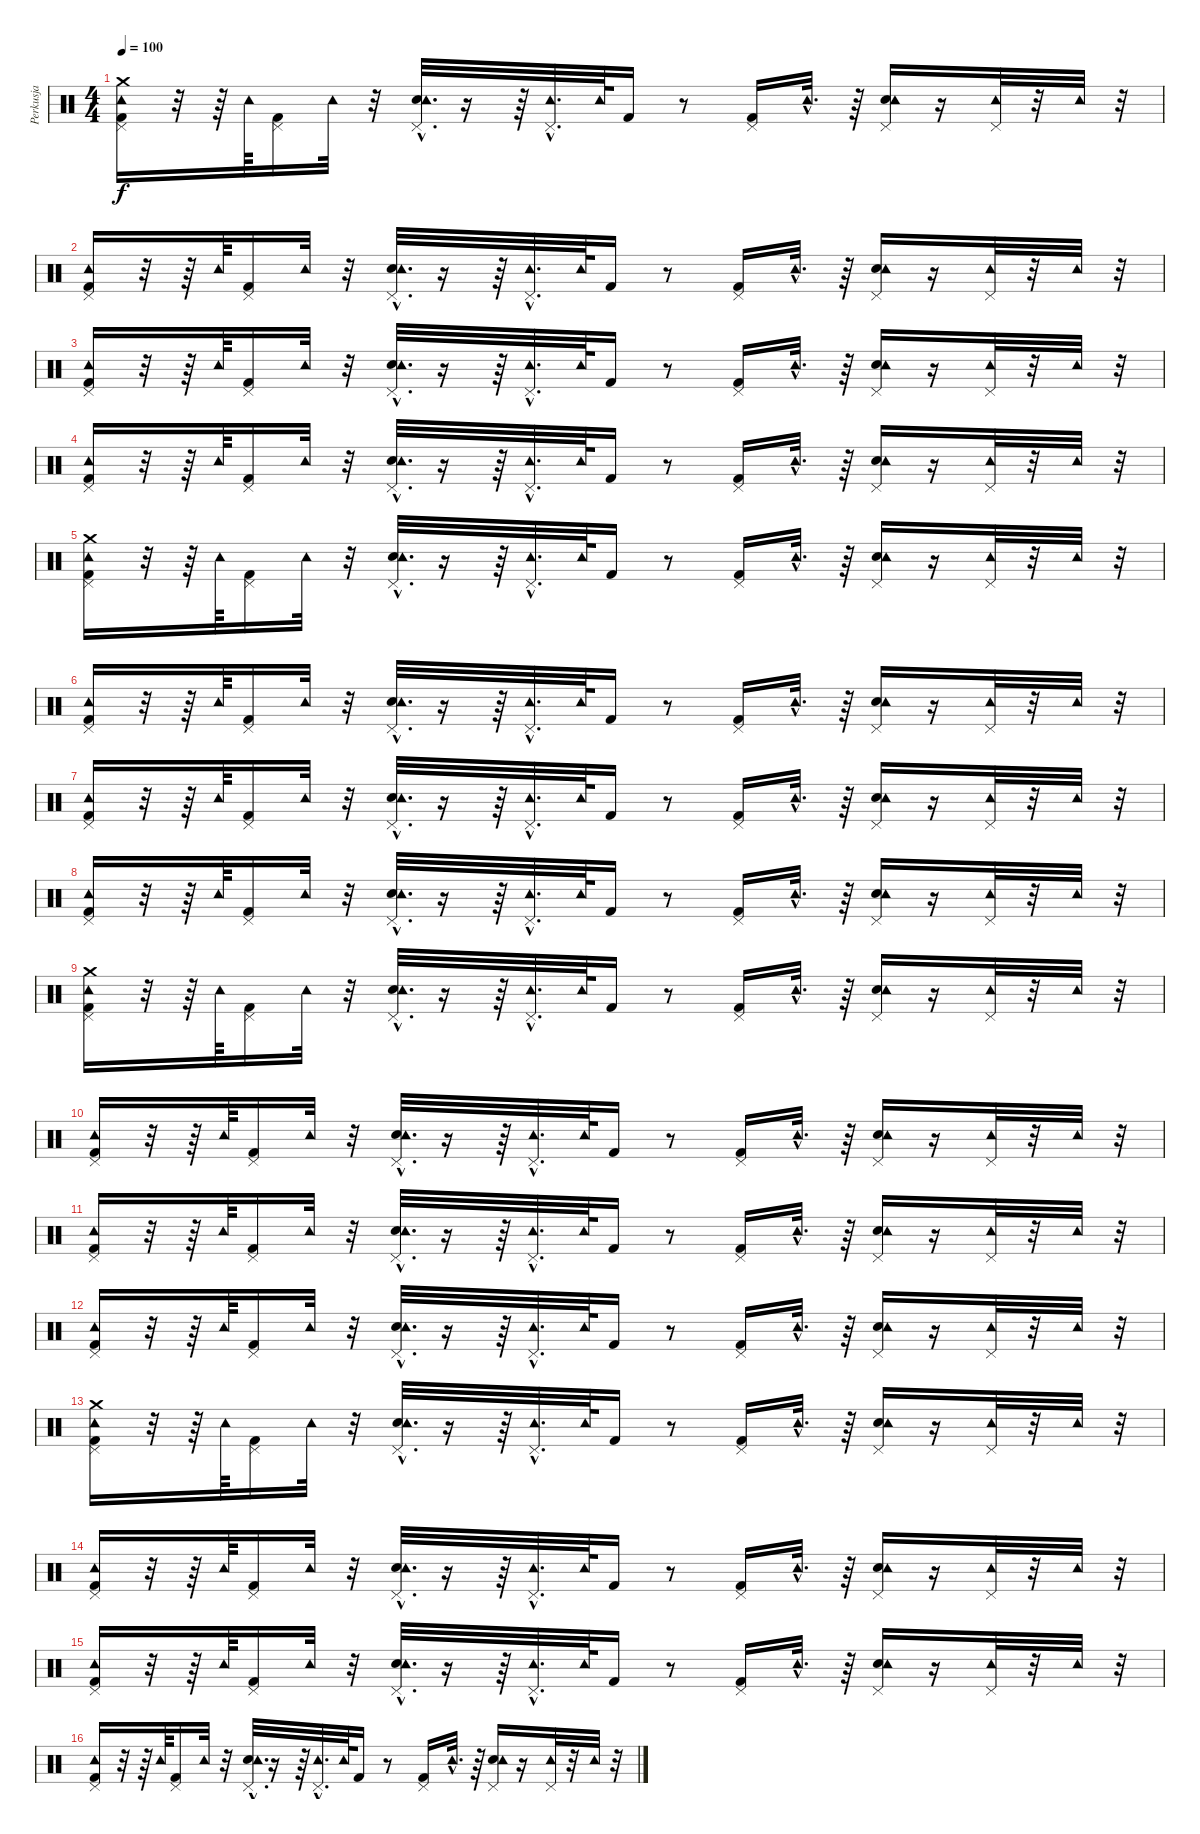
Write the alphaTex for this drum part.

\track ("Perkusja" "Perkusja") {instrument percussion}
\staff {score}
\articulation defaults
\ts (4 4)
\tempo 100
\clef neutral
\ks c
("Tambourine (hit)" "Pedal Hi-Hat (hit)" "Kick (hit) 2" "Crash medium (hit)").16{dy f} r.32 r.64 "Tambourine (hit)".64 ("Kick (hit) 2" "Pedal Hi-Hat (hit)").16 "Tambourine (hit)".32 r.32 ("Electric Snare (hit)"{hac} "Pedal Hi-Hat (hit)"{hac} "Tambourine (hit)"{hac}).32{d} r.16 r.64 ("Pedal Hi-Hat (hit)"{hac} "Tambourine (hit)"{hac}).32{d} "Tambourine (hit)".64 "Kick (hit) 2".16 r.8 ("Kick (hit) 2" "Pedal Hi-Hat (hit)").16 "Tambourine (hit)"{hac}.32{d} r.64 ("Electric Snare (hit)" "Pedal Hi-Hat (hit)" "Tambourine (hit)").16 r.16 ("Pedal Hi-Hat (hit)" "Tambourine (hit)").32 r.32 "Tambourine (hit)".32 r.32 |
("Tambourine (hit)" "Pedal Hi-Hat (hit)" "Kick (hit) 2").16 r.32 r.64 "Tambourine (hit)".64 ("Kick (hit) 2" "Pedal Hi-Hat (hit)").16 "Tambourine (hit)".32 r.32 ("Electric Snare (hit)"{hac} "Pedal Hi-Hat (hit)"{hac} "Tambourine (hit)"{hac}).32{d} r.16 r.64 ("Pedal Hi-Hat (hit)"{hac} "Tambourine (hit)"{hac}).32{d} "Tambourine (hit)".64 "Kick (hit) 2".16 r.8 ("Kick (hit) 2" "Pedal Hi-Hat (hit)").16 "Tambourine (hit)"{hac}.32{d} r.64 ("Electric Snare (hit)" "Pedal Hi-Hat (hit)" "Tambourine (hit)").16 r.16 ("Pedal Hi-Hat (hit)" "Tambourine (hit)").32 r.32 "Tambourine (hit)".32 r.32 |
("Tambourine (hit)" "Pedal Hi-Hat (hit)" "Kick (hit) 2").16 r.32 r.64 "Tambourine (hit)".64 ("Kick (hit) 2" "Pedal Hi-Hat (hit)").16 "Tambourine (hit)".32 r.32 ("Electric Snare (hit)"{hac} "Pedal Hi-Hat (hit)"{hac} "Tambourine (hit)"{hac}).32{d} r.16 r.64 ("Pedal Hi-Hat (hit)"{hac} "Tambourine (hit)"{hac}).32{d} "Tambourine (hit)".64 "Kick (hit) 2".16 r.8 ("Kick (hit) 2" "Pedal Hi-Hat (hit)").16 "Tambourine (hit)"{hac}.32{d} r.64 ("Electric Snare (hit)" "Pedal Hi-Hat (hit)" "Tambourine (hit)").16 r.16 ("Pedal Hi-Hat (hit)" "Tambourine (hit)").32 r.32 "Tambourine (hit)".32 r.32 |
("Tambourine (hit)" "Pedal Hi-Hat (hit)" "Kick (hit) 2").16 r.32 r.64 "Tambourine (hit)".64 ("Kick (hit) 2" "Pedal Hi-Hat (hit)").16 "Tambourine (hit)".32 r.32 ("Electric Snare (hit)"{hac} "Pedal Hi-Hat (hit)"{hac} "Tambourine (hit)"{hac}).32{d} r.16 r.64 ("Pedal Hi-Hat (hit)"{hac} "Tambourine (hit)"{hac}).32{d} "Tambourine (hit)".64 "Kick (hit) 2".16 r.8 ("Kick (hit) 2" "Pedal Hi-Hat (hit)").16 "Tambourine (hit)"{hac}.32{d} r.64 ("Electric Snare (hit)" "Pedal Hi-Hat (hit)" "Tambourine (hit)").16 r.16 ("Pedal Hi-Hat (hit)" "Tambourine (hit)").32 r.32 "Tambourine (hit)".32 r.32 |
("Tambourine (hit)" "Pedal Hi-Hat (hit)" "Kick (hit) 2" "Crash medium (hit)").16 r.32 r.64 "Tambourine (hit)".64 ("Kick (hit) 2" "Pedal Hi-Hat (hit)").16 "Tambourine (hit)".32 r.32 ("Electric Snare (hit)"{hac} "Pedal Hi-Hat (hit)"{hac} "Tambourine (hit)"{hac}).32{d} r.16 r.64 ("Pedal Hi-Hat (hit)"{hac} "Tambourine (hit)"{hac}).32{d} "Tambourine (hit)".64 "Kick (hit) 2".16 r.8 ("Kick (hit) 2" "Pedal Hi-Hat (hit)").16 "Tambourine (hit)"{hac}.32{d} r.64 ("Electric Snare (hit)" "Pedal Hi-Hat (hit)" "Tambourine (hit)").16 r.16 ("Pedal Hi-Hat (hit)" "Tambourine (hit)").32 r.32 "Tambourine (hit)".32 r.32 |
("Tambourine (hit)" "Pedal Hi-Hat (hit)" "Kick (hit) 2").16 r.32 r.64 "Tambourine (hit)".64 ("Kick (hit) 2" "Pedal Hi-Hat (hit)").16 "Tambourine (hit)".32 r.32 ("Electric Snare (hit)"{hac} "Pedal Hi-Hat (hit)"{hac} "Tambourine (hit)"{hac}).32{d} r.16 r.64 ("Pedal Hi-Hat (hit)"{hac} "Tambourine (hit)"{hac}).32{d} "Tambourine (hit)".64 "Kick (hit) 2".16 r.8 ("Kick (hit) 2" "Pedal Hi-Hat (hit)").16 "Tambourine (hit)"{hac}.32{d} r.64 ("Electric Snare (hit)" "Pedal Hi-Hat (hit)" "Tambourine (hit)").16 r.16 ("Pedal Hi-Hat (hit)" "Tambourine (hit)").32 r.32 "Tambourine (hit)".32 r.32 |
("Tambourine (hit)" "Pedal Hi-Hat (hit)" "Kick (hit) 2").16 r.32 r.64 "Tambourine (hit)".64 ("Kick (hit) 2" "Pedal Hi-Hat (hit)").16 "Tambourine (hit)".32 r.32 ("Electric Snare (hit)"{hac} "Pedal Hi-Hat (hit)"{hac} "Tambourine (hit)"{hac}).32{d} r.16 r.64 ("Pedal Hi-Hat (hit)"{hac} "Tambourine (hit)"{hac}).32{d} "Tambourine (hit)".64 "Kick (hit) 2".16 r.8 ("Kick (hit) 2" "Pedal Hi-Hat (hit)").16 "Tambourine (hit)"{hac}.32{d} r.64 ("Electric Snare (hit)" "Pedal Hi-Hat (hit)" "Tambourine (hit)").16 r.16 ("Pedal Hi-Hat (hit)" "Tambourine (hit)").32 r.32 "Tambourine (hit)".32 r.32 |
("Tambourine (hit)" "Pedal Hi-Hat (hit)" "Kick (hit) 2").16 r.32 r.64 "Tambourine (hit)".64 ("Kick (hit) 2" "Pedal Hi-Hat (hit)").16 "Tambourine (hit)".32 r.32 ("Electric Snare (hit)"{hac} "Pedal Hi-Hat (hit)"{hac} "Tambourine (hit)"{hac}).32{d} r.16 r.64 ("Pedal Hi-Hat (hit)"{hac} "Tambourine (hit)"{hac}).32{d} "Tambourine (hit)".64 "Kick (hit) 2".16 r.8 ("Kick (hit) 2" "Pedal Hi-Hat (hit)").16 "Tambourine (hit)"{hac}.32{d} r.64 ("Electric Snare (hit)" "Pedal Hi-Hat (hit)" "Tambourine (hit)").16 r.16 ("Pedal Hi-Hat (hit)" "Tambourine (hit)").32 r.32 "Tambourine (hit)".32 r.32 |
("Tambourine (hit)" "Pedal Hi-Hat (hit)" "Kick (hit) 2" "Crash medium (hit)").16 r.32 r.64 "Tambourine (hit)".64 ("Kick (hit) 2" "Pedal Hi-Hat (hit)").16 "Tambourine (hit)".32 r.32 ("Electric Snare (hit)"{hac} "Pedal Hi-Hat (hit)"{hac} "Tambourine (hit)"{hac}).32{d} r.16 r.64 ("Pedal Hi-Hat (hit)"{hac} "Tambourine (hit)"{hac}).32{d} "Tambourine (hit)".64 "Kick (hit) 2".16 r.8 ("Kick (hit) 2" "Pedal Hi-Hat (hit)").16 "Tambourine (hit)"{hac}.32{d} r.64 ("Electric Snare (hit)" "Pedal Hi-Hat (hit)" "Tambourine (hit)").16 r.16 ("Pedal Hi-Hat (hit)" "Tambourine (hit)").32 r.32 "Tambourine (hit)".32 r.32 |
("Tambourine (hit)" "Pedal Hi-Hat (hit)" "Kick (hit) 2").16 r.32 r.64 "Tambourine (hit)".64 ("Kick (hit) 2" "Pedal Hi-Hat (hit)").16 "Tambourine (hit)".32 r.32 ("Electric Snare (hit)"{hac} "Pedal Hi-Hat (hit)"{hac} "Tambourine (hit)"{hac}).32{d} r.16 r.64 ("Pedal Hi-Hat (hit)"{hac} "Tambourine (hit)"{hac}).32{d} "Tambourine (hit)".64 "Kick (hit) 2".16 r.8 ("Kick (hit) 2" "Pedal Hi-Hat (hit)").16 "Tambourine (hit)"{hac}.32{d} r.64 ("Electric Snare (hit)" "Pedal Hi-Hat (hit)" "Tambourine (hit)").16 r.16 ("Pedal Hi-Hat (hit)" "Tambourine (hit)").32 r.32 "Tambourine (hit)".32 r.32 |
("Tambourine (hit)" "Pedal Hi-Hat (hit)" "Kick (hit) 2").16 r.32 r.64 "Tambourine (hit)".64 ("Kick (hit) 2" "Pedal Hi-Hat (hit)").16 "Tambourine (hit)".32 r.32 ("Electric Snare (hit)"{hac} "Pedal Hi-Hat (hit)"{hac} "Tambourine (hit)"{hac}).32{d} r.16 r.64 ("Pedal Hi-Hat (hit)"{hac} "Tambourine (hit)"{hac}).32{d} "Tambourine (hit)".64 "Kick (hit) 2".16 r.8 ("Kick (hit) 2" "Pedal Hi-Hat (hit)").16 "Tambourine (hit)"{hac}.32{d} r.64 ("Electric Snare (hit)" "Pedal Hi-Hat (hit)" "Tambourine (hit)").16 r.16 ("Pedal Hi-Hat (hit)" "Tambourine (hit)").32 r.32 "Tambourine (hit)".32 r.32 |
("Tambourine (hit)" "Pedal Hi-Hat (hit)" "Kick (hit) 2").16 r.32 r.64 "Tambourine (hit)".64 ("Kick (hit) 2" "Pedal Hi-Hat (hit)").16 "Tambourine (hit)".32 r.32 ("Electric Snare (hit)"{hac} "Pedal Hi-Hat (hit)"{hac} "Tambourine (hit)"{hac}).32{d} r.16 r.64 ("Pedal Hi-Hat (hit)"{hac} "Tambourine (hit)"{hac}).32{d} "Tambourine (hit)".64 "Kick (hit) 2".16 r.8 ("Kick (hit) 2" "Pedal Hi-Hat (hit)").16 "Tambourine (hit)"{hac}.32{d} r.64 ("Electric Snare (hit)" "Pedal Hi-Hat (hit)" "Tambourine (hit)").16 r.16 ("Pedal Hi-Hat (hit)" "Tambourine (hit)").32 r.32 "Tambourine (hit)".32 r.32 |
("Tambourine (hit)" "Pedal Hi-Hat (hit)" "Kick (hit) 2" "Crash medium (hit)").16 r.32 r.64 "Tambourine (hit)".64 ("Kick (hit) 2" "Pedal Hi-Hat (hit)").16 "Tambourine (hit)".32 r.32 ("Electric Snare (hit)"{hac} "Pedal Hi-Hat (hit)"{hac} "Tambourine (hit)"{hac}).32{d} r.16 r.64 ("Pedal Hi-Hat (hit)"{hac} "Tambourine (hit)"{hac}).32{d} "Tambourine (hit)".64 "Kick (hit) 2".16 r.8 ("Kick (hit) 2" "Pedal Hi-Hat (hit)").16 "Tambourine (hit)"{hac}.32{d} r.64 ("Electric Snare (hit)" "Pedal Hi-Hat (hit)" "Tambourine (hit)").16 r.16 ("Pedal Hi-Hat (hit)" "Tambourine (hit)").32 r.32 "Tambourine (hit)".32 r.32 |
("Tambourine (hit)" "Pedal Hi-Hat (hit)" "Kick (hit) 2").16 r.32 r.64 "Tambourine (hit)".64 ("Kick (hit) 2" "Pedal Hi-Hat (hit)").16 "Tambourine (hit)".32 r.32 ("Electric Snare (hit)"{hac} "Pedal Hi-Hat (hit)"{hac} "Tambourine (hit)"{hac}).32{d} r.16 r.64 ("Pedal Hi-Hat (hit)"{hac} "Tambourine (hit)"{hac}).32{d} "Tambourine (hit)".64 "Kick (hit) 2".16 r.8 ("Kick (hit) 2" "Pedal Hi-Hat (hit)").16 "Tambourine (hit)"{hac}.32{d} r.64 ("Electric Snare (hit)" "Pedal Hi-Hat (hit)" "Tambourine (hit)").16 r.16 ("Pedal Hi-Hat (hit)" "Tambourine (hit)").32 r.32 "Tambourine (hit)".32 r.32 |
("Tambourine (hit)" "Pedal Hi-Hat (hit)" "Kick (hit) 2").16 r.32 r.64 "Tambourine (hit)".64 ("Kick (hit) 2" "Pedal Hi-Hat (hit)").16 "Tambourine (hit)".32 r.32 ("Electric Snare (hit)"{hac} "Pedal Hi-Hat (hit)"{hac} "Tambourine (hit)"{hac}).32{d} r.16 r.64 ("Pedal Hi-Hat (hit)"{hac} "Tambourine (hit)"{hac}).32{d} "Tambourine (hit)".64 "Kick (hit) 2".16 r.8 ("Kick (hit) 2" "Pedal Hi-Hat (hit)").16 "Tambourine (hit)"{hac}.32{d} r.64 ("Electric Snare (hit)" "Pedal Hi-Hat (hit)" "Tambourine (hit)").16 r.16 ("Pedal Hi-Hat (hit)" "Tambourine (hit)").32 r.32 "Tambourine (hit)".32 r.32 |
("Tambourine (hit)" "Pedal Hi-Hat (hit)" "Kick (hit) 2").16 r.32 r.64 "Tambourine (hit)".64 ("Kick (hit) 2" "Pedal Hi-Hat (hit)").16 "Tambourine (hit)".32 r.32 ("Electric Snare (hit)"{hac} "Pedal Hi-Hat (hit)"{hac} "Tambourine (hit)"{hac}).32{d} r.16 r.64 ("Pedal Hi-Hat (hit)"{hac} "Tambourine (hit)"{hac}).32{d} "Tambourine (hit)".64 "Kick (hit) 2".16 r.8 ("Kick (hit) 2" "Pedal Hi-Hat (hit)").16 "Tambourine (hit)"{hac}.32{d} r.64 ("Electric Snare (hit)" "Pedal Hi-Hat (hit)" "Tambourine (hit)").16 r.16 ("Pedal Hi-Hat (hit)" "Tambourine (hit)").32 r.32 "Tambourine (hit)".32 r.32
